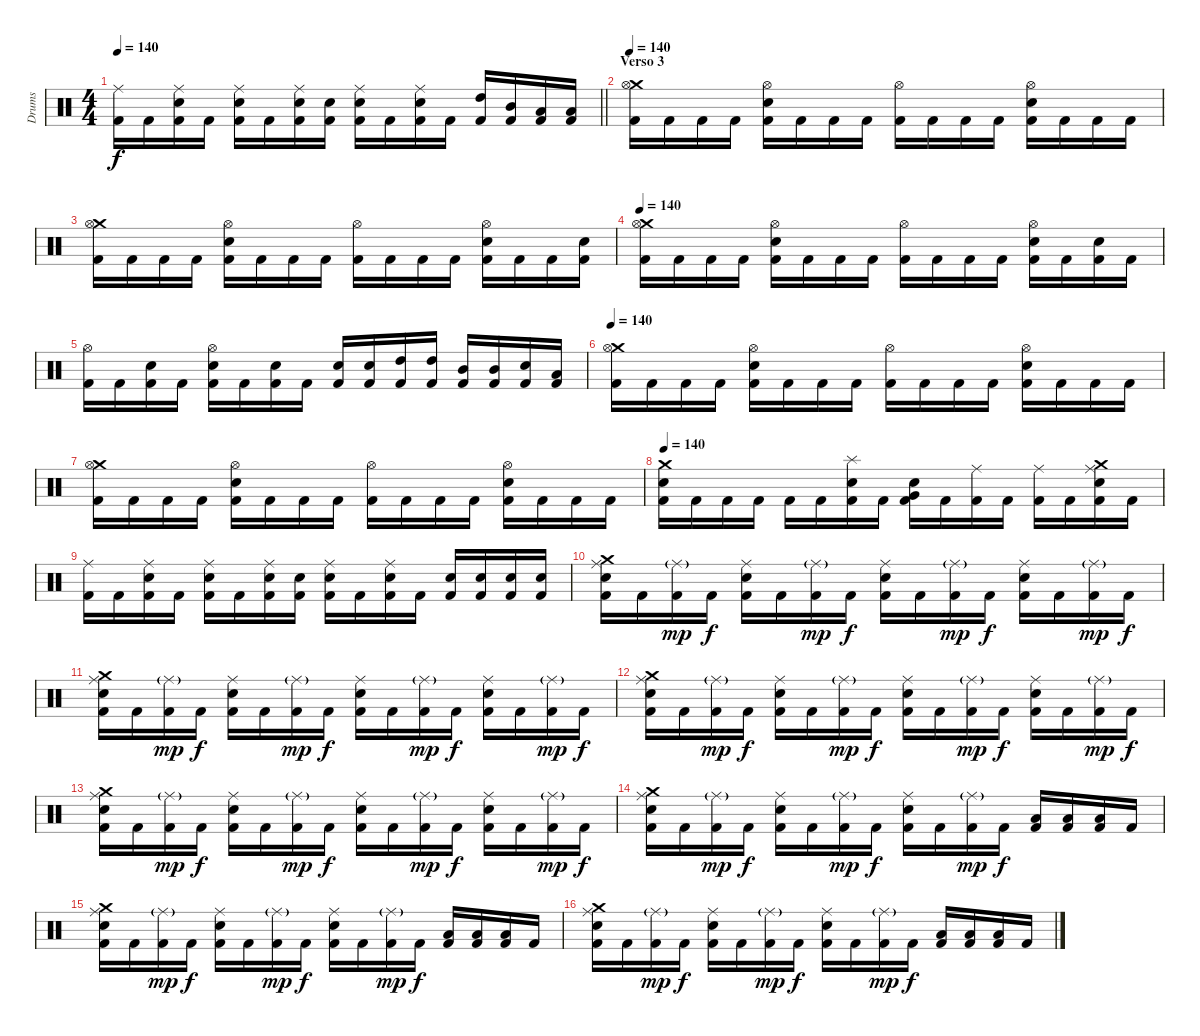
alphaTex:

\track ("Drums" "Drums") {instrument percussion}
\staff {score}
\articulation defaults
\ts (4 4)
\tempo 140
\clef neutral
\barLineRight lightlight
\ks c
("Ride (middle)" "Kick (hit) 2").16{dy f} "Kick (hit) 2".16 ("Ride (middle)" "Electric Snare (hit)" "Kick (hit) 2").16 "Kick (hit) 2".16 ("Ride (middle)" "Electric Snare (hit)" "Kick (hit) 2").16 "Kick (hit) 2".16 ("Ride (middle)" "Electric Snare (hit)" "Kick (hit) 2").16 ("Electric Snare (hit)" "Kick (hit) 2").16 ("Ride (middle)" "Electric Snare (hit)" "Kick (hit) 2").16 "Kick (hit) 2".16 ("Ride (middle)" "Electric Snare (hit)" "Kick (hit) 2").16 "Kick (hit) 2".16 ("High Tom (hit)" "Kick (hit) 2").16 ("Mid Tom (hit)" "Kick (hit) 2").16 ("Low Tom (hit)" "Kick (hit) 2").16 ("Low Tom (hit)" "Kick (hit) 2").16 |
\section ("" "Verso 3")
\tempo 140
("Crash medium (hit)" "Hi-Hat (open)" "Kick (hit) 2").16 "Kick (hit) 2".16 "Kick (hit) 2".16 "Kick (hit) 2".16 ("Hi-Hat (open)" "Electric Snare (hit)" "Kick (hit) 2").16 "Kick (hit) 2".16 "Kick (hit) 2".16 "Kick (hit) 2".16 ("Hi-Hat (open)" "Kick (hit) 2").16 "Kick (hit) 2".16 "Kick (hit) 2".16 "Kick (hit) 2".16 ("Hi-Hat (open)" "Electric Snare (hit)" "Kick (hit) 2").16 "Kick (hit) 2".16 "Kick (hit) 2".16 "Kick (hit) 2".16 |
("Crash medium (hit)" "Hi-Hat (open)" "Kick (hit) 2").16 "Kick (hit) 2".16 "Kick (hit) 2".16 "Kick (hit) 2".16 ("Hi-Hat (open)" "Electric Snare (hit)" "Kick (hit) 2").16 "Kick (hit) 2".16 "Kick (hit) 2".16 "Kick (hit) 2".16 ("Hi-Hat (open)" "Kick (hit) 2").16 "Kick (hit) 2".16 "Kick (hit) 2".16 "Kick (hit) 2".16 ("Hi-Hat (open)" "Electric Snare (hit)" "Kick (hit) 2").16 "Kick (hit) 2".16 "Kick (hit) 2".16 ("Electric Snare (hit)" "Kick (hit) 2").16 |
\tempo 140
("Crash medium (hit)" "Hi-Hat (open)" "Kick (hit) 2").16 "Kick (hit) 2".16 "Kick (hit) 2".16 "Kick (hit) 2".16 ("Hi-Hat (open)" "Electric Snare (hit)" "Kick (hit) 2").16 "Kick (hit) 2".16 "Kick (hit) 2".16 "Kick (hit) 2".16 ("Hi-Hat (open)" "Kick (hit) 2").16 "Kick (hit) 2".16 "Kick (hit) 2".16 "Kick (hit) 2".16 ("Hi-Hat (open)" "Electric Snare (hit)" "Kick (hit) 2").16 "Kick (hit) 2".16 ("Electric Snare (hit)" "Kick (hit) 2").16 "Kick (hit) 2".16 |
("Hi-Hat (open)" "Kick (hit) 2").16 "Kick (hit) 2".16 ("Electric Snare (hit)" "Kick (hit) 2").16 "Kick (hit) 2".16 ("Hi-Hat (open)" "Electric Snare (hit)" "Kick (hit) 2").16 "Kick (hit) 2".16 ("Electric Snare (hit)" "Kick (hit) 2").16 "Kick (hit) 2".16 ("Electric Snare (hit)" "Kick (hit) 2").16 ("Electric Snare (hit)" "Kick (hit) 2").16 ("High Tom (hit)" "Kick (hit) 2").16 ("High Tom (hit)" "Kick (hit) 2").16 ("Mid Tom (hit)" "Kick (hit) 2").16 ("Mid Tom (hit)" "Kick (hit) 2").16 ("Electric Snare (hit)" "Kick (hit) 2").16 ("Low Tom (hit)" "Kick (hit) 2").16 |
\tempo 140
("Crash medium (hit)" "Hi-Hat (open)" "Kick (hit) 2").16 "Kick (hit) 2".16 "Kick (hit) 2".16 "Kick (hit) 2".16 ("Hi-Hat (open)" "Electric Snare (hit)" "Kick (hit) 2").16 "Kick (hit) 2".16 "Kick (hit) 2".16 "Kick (hit) 2".16 ("Hi-Hat (open)" "Kick (hit) 2").16 "Kick (hit) 2".16 "Kick (hit) 2".16 "Kick (hit) 2".16 ("Hi-Hat (open)" "Electric Snare (hit)" "Kick (hit) 2").16 "Kick (hit) 2".16 "Kick (hit) 2".16 "Kick (hit) 2".16 |
("Crash medium (hit)" "Hi-Hat (open)" "Kick (hit) 2").16 "Kick (hit) 2".16 "Kick (hit) 2".16 "Kick (hit) 2".16 ("Hi-Hat (open)" "Electric Snare (hit)" "Kick (hit) 2").16 "Kick (hit) 2".16 "Kick (hit) 2".16 "Kick (hit) 2".16 ("Hi-Hat (open)" "Kick (hit) 2").16 "Kick (hit) 2".16 "Kick (hit) 2".16 "Kick (hit) 2".16 ("Hi-Hat (open)" "Electric Snare (hit)" "Kick (hit) 2").16 "Kick (hit) 2".16 "Kick (hit) 2".16 "Kick (hit) 2".16 |
\tempo 140
("Crash medium (hit)" "Electric Snare (hit)" "Kick (hit) 2").16 "Kick (hit) 2".16 "Kick (hit) 2".16 "Kick (hit) 2".16 "Kick (hit) 2".16 "Kick (hit) 2".16 ("Splash (hit)" "Electric Snare (hit)" "Kick (hit) 2").16 "Kick (hit) 2".16 ("Very Low Tom (hit)" "Electric Snare (hit)" "Kick (hit) 2").16 "Kick (hit) 2".16 ("Ride (middle)" "Kick (hit) 2").16 "Kick (hit) 2".16 ("Ride (middle)" "Kick (hit) 2").16 "Kick (hit) 2".16 ("Crash medium (hit)" "Ride (middle)" "Electric Snare (hit)" "Kick (hit) 2").16 "Kick (hit) 2".16 |
("Ride (middle)" "Kick (hit) 2").16 "Kick (hit) 2".16 ("Ride (middle)" "Electric Snare (hit)" "Kick (hit) 2").16 "Kick (hit) 2".16 ("Ride (middle)" "Electric Snare (hit)" "Kick (hit) 2").16 "Kick (hit) 2".16 ("Ride (middle)" "Electric Snare (hit)" "Kick (hit) 2").16 ("Electric Snare (hit)" "Kick (hit) 2").16 ("Ride (middle)" "Electric Snare (hit)" "Kick (hit) 2").16 "Kick (hit) 2".16 ("Ride (middle)" "Electric Snare (hit)" "Kick (hit) 2").16 "Kick (hit) 2".16 ("Electric Snare (hit)" "Kick (hit) 2").16 ("Electric Snare (hit)" "Kick (hit) 2").16 ("Electric Snare (hit)" "Kick (hit) 2").16 ("Electric Snare (hit)" "Kick (hit) 2").16 |
("Crash medium (hit)" "Ride (middle)" "Electric Snare (hit)" "Kick (hit) 2").16 "Kick (hit) 2".16 ("Ride (middle)"{g} "Kick (hit) 2").16{dy mp} "Kick (hit) 2".16{dy f} ("Ride (middle)" "Electric Snare (hit)" "Kick (hit) 2").16 "Kick (hit) 2".16 ("Ride (middle)"{g} "Kick (hit) 2").16{dy mp} "Kick (hit) 2".16{dy f} ("Ride (middle)" "Electric Snare (hit)" "Kick (hit) 2").16 "Kick (hit) 2".16 ("Ride (middle)"{g} "Kick (hit) 2").16{dy mp} "Kick (hit) 2".16{dy f} ("Ride (middle)" "Electric Snare (hit)" "Kick (hit) 2").16 "Kick (hit) 2".16 ("Ride (middle)"{g} "Kick (hit) 2").16{dy mp} "Kick (hit) 2".16{dy f} |
("Crash medium (hit)" "Ride (middle)" "Electric Snare (hit)" "Kick (hit) 2").16 "Kick (hit) 2".16 ("Ride (middle)"{g} "Kick (hit) 2").16{dy mp} "Kick (hit) 2".16{dy f} ("Ride (middle)" "Electric Snare (hit)" "Kick (hit) 2").16 "Kick (hit) 2".16 ("Ride (middle)"{g} "Kick (hit) 2").16{dy mp} "Kick (hit) 2".16{dy f} ("Ride (middle)" "Electric Snare (hit)" "Kick (hit) 2").16 "Kick (hit) 2".16 ("Ride (middle)"{g} "Kick (hit) 2").16{dy mp} "Kick (hit) 2".16{dy f} ("Ride (middle)" "Electric Snare (hit)" "Kick (hit) 2").16 "Kick (hit) 2".16 ("Ride (middle)"{g} "Kick (hit) 2").16{dy mp} "Kick (hit) 2".16{dy f} |
("Crash medium (hit)" "Ride (middle)" "Electric Snare (hit)" "Kick (hit) 2").16 "Kick (hit) 2".16 ("Ride (middle)"{g} "Kick (hit) 2").16{dy mp} "Kick (hit) 2".16{dy f} ("Ride (middle)" "Electric Snare (hit)" "Kick (hit) 2").16 "Kick (hit) 2".16 ("Ride (middle)"{g} "Kick (hit) 2").16{dy mp} "Kick (hit) 2".16{dy f} ("Ride (middle)" "Electric Snare (hit)" "Kick (hit) 2").16 "Kick (hit) 2".16 ("Ride (middle)"{g} "Kick (hit) 2").16{dy mp} "Kick (hit) 2".16{dy f} ("Ride (middle)" "Electric Snare (hit)" "Kick (hit) 2").16 "Kick (hit) 2".16 ("Ride (middle)"{g} "Kick (hit) 2").16{dy mp} "Kick (hit) 2".16{dy f} |
("Crash medium (hit)" "Ride (middle)" "Electric Snare (hit)" "Kick (hit) 2").16 "Kick (hit) 2".16 ("Ride (middle)"{g} "Kick (hit) 2").16{dy mp} "Kick (hit) 2".16{dy f} ("Ride (middle)" "Electric Snare (hit)" "Kick (hit) 2").16 "Kick (hit) 2".16 ("Ride (middle)"{g} "Kick (hit) 2").16{dy mp} "Kick (hit) 2".16{dy f} ("Ride (middle)" "Electric Snare (hit)" "Kick (hit) 2").16 "Kick (hit) 2".16 ("Ride (middle)"{g} "Kick (hit) 2").16{dy mp} "Kick (hit) 2".16{dy f} ("Ride (middle)" "Electric Snare (hit)" "Kick (hit) 2").16 "Kick (hit) 2".16 ("Ride (middle)"{g} "Kick (hit) 2").16{dy mp} "Kick (hit) 2".16{dy f} |
("Crash medium (hit)" "Ride (middle)" "Electric Snare (hit)" "Kick (hit) 2").16 "Kick (hit) 2".16 ("Ride (middle)"{g} "Kick (hit) 2").16{dy mp} "Kick (hit) 2".16{dy f} ("Ride (middle)" "Electric Snare (hit)" "Kick (hit) 2").16 "Kick (hit) 2".16 ("Ride (middle)"{g} "Kick (hit) 2").16{dy mp} "Kick (hit) 2".16{dy f} ("Ride (middle)" "Electric Snare (hit)" "Kick (hit) 2").16 "Kick (hit) 2".16 ("Ride (middle)"{g} "Kick (hit) 2").16{dy mp} "Kick (hit) 2".16{dy f} ("Low Tom (hit)" "Kick (hit) 2").16 ("Low Tom (hit)" "Kick (hit) 2").16 ("Low Tom (hit)" "Kick (hit) 2").16 "Kick (hit) 2".16 |
("Crash medium (hit)" "Ride (middle)" "Electric Snare (hit)" "Kick (hit) 2").16 "Kick (hit) 2".16 ("Ride (middle)"{g} "Kick (hit) 2").16{dy mp} "Kick (hit) 2".16{dy f} ("Ride (middle)" "Electric Snare (hit)" "Kick (hit) 2").16 "Kick (hit) 2".16 ("Ride (middle)"{g} "Kick (hit) 2").16{dy mp} "Kick (hit) 2".16{dy f} ("Ride (middle)" "Electric Snare (hit)" "Kick (hit) 2").16 "Kick (hit) 2".16 ("Ride (middle)"{g} "Kick (hit) 2").16{dy mp} "Kick (hit) 2".16{dy f} ("Low Tom (hit)" "Kick (hit) 2").16 ("Low Tom (hit)" "Kick (hit) 2").16 ("Low Tom (hit)" "Kick (hit) 2").16 "Kick (hit) 2".16 |
("Crash medium (hit)" "Ride (middle)" "Electric Snare (hit)" "Kick (hit) 2").16 "Kick (hit) 2".16 ("Ride (middle)"{g} "Kick (hit) 2").16{dy mp} "Kick (hit) 2".16{dy f} ("Ride (middle)" "Electric Snare (hit)" "Kick (hit) 2").16 "Kick (hit) 2".16 ("Ride (middle)"{g} "Kick (hit) 2").16{dy mp} "Kick (hit) 2".16{dy f} ("Ride (middle)" "Electric Snare (hit)" "Kick (hit) 2").16 "Kick (hit) 2".16 ("Ride (middle)"{g} "Kick (hit) 2").16{dy mp} "Kick (hit) 2".16{dy f} ("Low Tom (hit)" "Kick (hit) 2").16 ("Low Tom (hit)" "Kick (hit) 2").16 ("Low Tom (hit)" "Kick (hit) 2").16 "Kick (hit) 2".16
